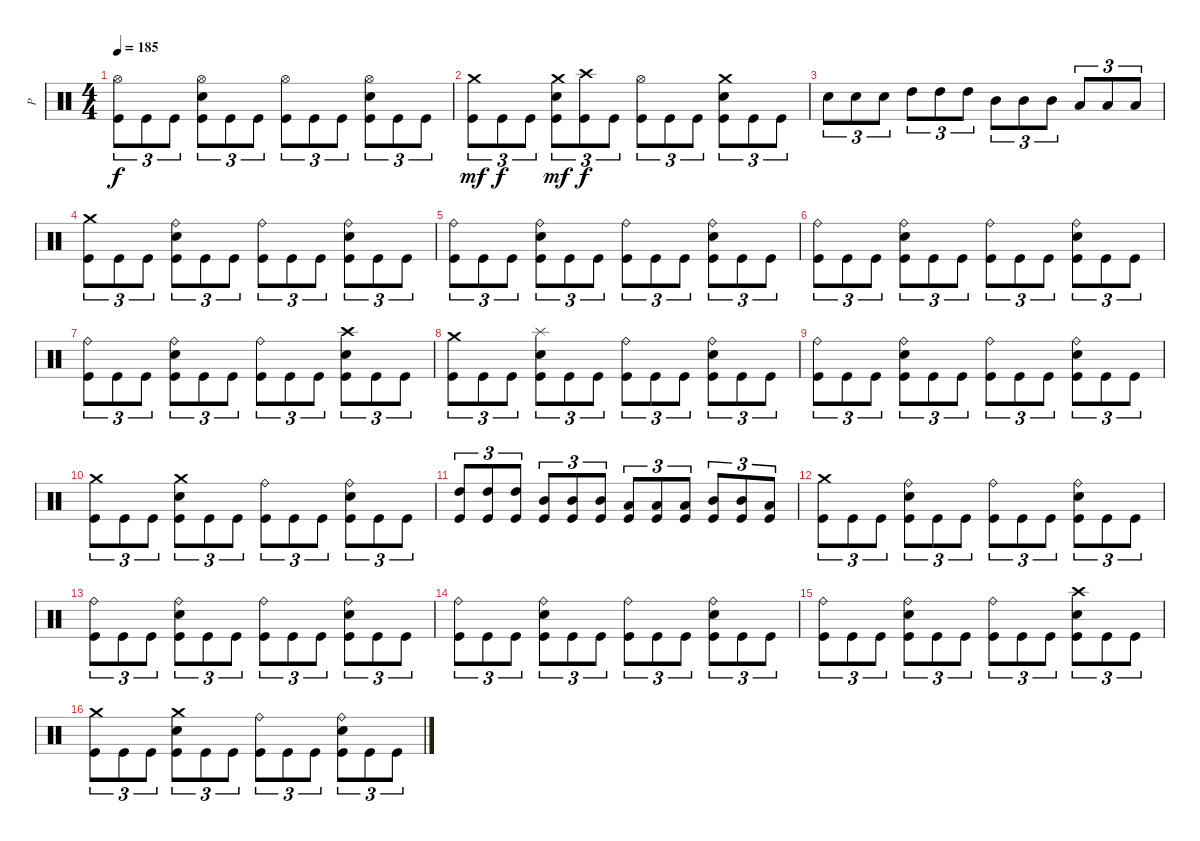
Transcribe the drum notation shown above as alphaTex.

\track ("P" "P") {instrument percussion}
\staff {score}
\articulation defaults
\ts (4 4)
\tempo 185
\clef neutral
\ks c
("Hi-Hat (open)" "Kick (hit)").8{tu (3 2) dy f} "Kick (hit)".8{tu (3 2)} "Kick (hit)".8{tu (3 2)} ("Hi-Hat (open)" "Electric Snare (hit)" "Kick (hit)").8{tu (3 2)} "Kick (hit)".8{tu (3 2)} "Kick (hit)".8{tu (3 2)} ("Hi-Hat (open)" "Kick (hit)").8{tu (3 2)} "Kick (hit)".8{tu (3 2)} "Kick (hit)".8{tu (3 2)} ("Hi-Hat (open)" "Electric Snare (hit)" "Kick (hit)").8{tu (3 2)} "Kick (hit)".8{tu (3 2)} "Kick (hit)".8{tu (3 2)} |
("Crash medium (hit)" "Kick (hit)").8{tu (3 2) dy mf} "Kick (hit)".8{tu (3 2) dy f} "Kick (hit)".8{tu (3 2)} ("Crash medium (hit)" "Electric Snare (hit)" "Kick (hit)").8{tu (3 2) dy mf} ("Crash high (hit)" "Kick (hit)").8{tu (3 2) dy f} "Kick (hit)".8{tu (3 2)} ("Hi-Hat (open)" "Kick (hit)").8{tu (3 2)} "Kick (hit)".8{tu (3 2)} "Kick (hit)".8{tu (3 2)} ("Crash medium (hit)" "Electric Snare (hit)" "Kick (hit)").8{tu (3 2)} "Kick (hit)".8{tu (3 2)} "Kick (hit)".8{tu (3 2)} |
"Electric Snare (hit)".8{tu (3 2)} "Electric Snare (hit)".8{tu (3 2)} "Electric Snare (hit)".8{tu (3 2)} "High Tom (hit)".8{tu (3 2)} "High Tom (hit)".8{tu (3 2)} "High Tom (hit)".8{tu (3 2)} "Mid Tom (hit)".8{tu (3 2)} "Mid Tom (hit)".8{tu (3 2)} "Mid Tom (hit)".8{tu (3 2)} "Low Tom (hit)".8{tu (3 2)} "Low Tom (hit)".8{tu (3 2)} "Low Tom (hit)".8{tu (3 2)} |
("Crash medium (hit)" "Kick (hit)").8{tu (3 2)} "Kick (hit)".8{tu (3 2)} "Kick (hit)".8{tu (3 2)} ("Ride (bell)" "Electric Snare (hit)" "Kick (hit)").8{tu (3 2)} "Kick (hit)".8{tu (3 2)} "Kick (hit)".8{tu (3 2)} ("Ride (bell)" "Kick (hit)").8{tu (3 2)} "Kick (hit)".8{tu (3 2)} "Kick (hit)".8{tu (3 2)} ("Ride (bell)" "Electric Snare (hit)" "Kick (hit)").8{tu (3 2)} "Kick (hit)".8{tu (3 2)} "Kick (hit)".8{tu (3 2)} |
("Ride (bell)" "Kick (hit)").8{tu (3 2)} "Kick (hit)".8{tu (3 2)} "Kick (hit)".8{tu (3 2)} ("Ride (bell)" "Electric Snare (hit)" "Kick (hit)").8{tu (3 2)} "Kick (hit)".8{tu (3 2)} "Kick (hit)".8{tu (3 2)} ("Ride (bell)" "Kick (hit)").8{tu (3 2)} "Kick (hit)".8{tu (3 2)} "Kick (hit)".8{tu (3 2)} ("Ride (bell)" "Electric Snare (hit)" "Kick (hit)").8{tu (3 2)} "Kick (hit)".8{tu (3 2)} "Kick (hit)".8{tu (3 2)} |
("Ride (bell)" "Kick (hit)").8{tu (3 2)} "Kick (hit)".8{tu (3 2)} "Kick (hit)".8{tu (3 2)} ("Ride (bell)" "Electric Snare (hit)" "Kick (hit)").8{tu (3 2)} "Kick (hit)".8{tu (3 2)} "Kick (hit)".8{tu (3 2)} ("Ride (bell)" "Kick (hit)").8{tu (3 2)} "Kick (hit)".8{tu (3 2)} "Kick (hit)".8{tu (3 2)} ("Ride (bell)" "Electric Snare (hit)" "Kick (hit)").8{tu (3 2)} "Kick (hit)".8{tu (3 2)} "Kick (hit)".8{tu (3 2)} |
("Ride (bell)" "Kick (hit)").8{tu (3 2)} "Kick (hit)".8{tu (3 2)} "Kick (hit)".8{tu (3 2)} ("Ride (bell)" "Electric Snare (hit)" "Kick (hit)").8{tu (3 2)} "Kick (hit)".8{tu (3 2)} "Kick (hit)".8{tu (3 2)} ("Ride (bell)" "Kick (hit)").8{tu (3 2)} "Kick (hit)".8{tu (3 2)} "Kick (hit)".8{tu (3 2)} ("Crash high (hit)" "Electric Snare (hit)" "Kick (hit)").8{tu (3 2)} "Kick (hit)".8{tu (3 2)} "Kick (hit)".8{tu (3 2)} |
("Crash medium (hit)" "Kick (hit)").8{tu (3 2)} "Kick (hit)".8{tu (3 2)} "Kick (hit)".8{tu (3 2)} ("Splash (hit)" "Electric Snare (hit)" "Kick (hit)").8{tu (3 2)} "Kick (hit)".8{tu (3 2)} "Kick (hit)".8{tu (3 2)} ("Ride (bell)" "Kick (hit)").8{tu (3 2)} "Kick (hit)".8{tu (3 2)} "Kick (hit)".8{tu (3 2)} ("Ride (bell)" "Electric Snare (hit)" "Kick (hit)").8{tu (3 2)} "Kick (hit)".8{tu (3 2)} "Kick (hit)".8{tu (3 2)} |
("Ride (bell)" "Kick (hit)").8{tu (3 2)} "Kick (hit)".8{tu (3 2)} "Kick (hit)".8{tu (3 2)} ("Ride (bell)" "Electric Snare (hit)" "Kick (hit)").8{tu (3 2)} "Kick (hit)".8{tu (3 2)} "Kick (hit)".8{tu (3 2)} ("Ride (bell)" "Kick (hit)").8{tu (3 2)} "Kick (hit)".8{tu (3 2)} "Kick (hit)".8{tu (3 2)} ("Ride (bell)" "Electric Snare (hit)" "Kick (hit)").8{tu (3 2)} "Kick (hit)".8{tu (3 2)} "Kick (hit)".8{tu (3 2)} |
("Crash medium (hit)" "Kick (hit)").8{tu (3 2)} "Kick (hit)".8{tu (3 2)} "Kick (hit)".8{tu (3 2)} ("Crash medium (hit)" "Electric Snare (hit)" "Kick (hit)").8{tu (3 2)} "Kick (hit)".8{tu (3 2)} "Kick (hit)".8{tu (3 2)} ("Ride (bell)" "Kick (hit)").8{tu (3 2)} "Kick (hit)".8{tu (3 2)} "Kick (hit)".8{tu (3 2)} ("Ride (bell)" "Electric Snare (hit)" "Kick (hit)").8{tu (3 2)} "Kick (hit)".8{tu (3 2)} "Kick (hit)".8{tu (3 2)} |
("High Tom (hit)" "Kick (hit)").8{tu (3 2)} ("High Tom (hit)" "Kick (hit)").8{tu (3 2)} ("High Tom (hit)" "Kick (hit)").8{tu (3 2)} ("Mid Tom (hit)" "Kick (hit)").8{tu (3 2)} ("Mid Tom (hit)" "Kick (hit)").8{tu (3 2)} ("Mid Tom (hit)" "Kick (hit)").8{tu (3 2)} ("Low Tom (hit)" "Kick (hit)").8{tu (3 2)} ("Low Tom (hit)" "Kick (hit)").8{tu (3 2)} ("Low Tom (hit)" "Kick (hit)").8{tu (3 2)} ("Mid Tom (hit)" "Kick (hit)").8{tu (3 2)} ("Mid Tom (hit)" "Kick (hit)").8{tu (3 2)} ("Low Tom (hit)" "Kick (hit)").8{tu (3 2)} |
("Crash medium (hit)" "Kick (hit)").8{tu (3 2)} "Kick (hit)".8{tu (3 2)} "Kick (hit)".8{tu (3 2)} ("Ride (bell)" "Electric Snare (hit)" "Kick (hit)").8{tu (3 2)} "Kick (hit)".8{tu (3 2)} "Kick (hit)".8{tu (3 2)} ("Ride (bell)" "Kick (hit)").8{tu (3 2)} "Kick (hit)".8{tu (3 2)} "Kick (hit)".8{tu (3 2)} ("Ride (bell)" "Electric Snare (hit)" "Kick (hit)").8{tu (3 2)} "Kick (hit)".8{tu (3 2)} "Kick (hit)".8{tu (3 2)} |
("Ride (bell)" "Kick (hit)").8{tu (3 2)} "Kick (hit)".8{tu (3 2)} "Kick (hit)".8{tu (3 2)} ("Ride (bell)" "Electric Snare (hit)" "Kick (hit)").8{tu (3 2)} "Kick (hit)".8{tu (3 2)} "Kick (hit)".8{tu (3 2)} ("Ride (bell)" "Kick (hit)").8{tu (3 2)} "Kick (hit)".8{tu (3 2)} "Kick (hit)".8{tu (3 2)} ("Ride (bell)" "Electric Snare (hit)" "Kick (hit)").8{tu (3 2)} "Kick (hit)".8{tu (3 2)} "Kick (hit)".8{tu (3 2)} |
("Ride (bell)" "Kick (hit)").8{tu (3 2)} "Kick (hit)".8{tu (3 2)} "Kick (hit)".8{tu (3 2)} ("Ride (bell)" "Electric Snare (hit)" "Kick (hit)").8{tu (3 2)} "Kick (hit)".8{tu (3 2)} "Kick (hit)".8{tu (3 2)} ("Ride (bell)" "Kick (hit)").8{tu (3 2)} "Kick (hit)".8{tu (3 2)} "Kick (hit)".8{tu (3 2)} ("Ride (bell)" "Electric Snare (hit)" "Kick (hit)").8{tu (3 2)} "Kick (hit)".8{tu (3 2)} "Kick (hit)".8{tu (3 2)} |
("Ride (bell)" "Kick (hit)").8{tu (3 2)} "Kick (hit)".8{tu (3 2)} "Kick (hit)".8{tu (3 2)} ("Ride (bell)" "Electric Snare (hit)" "Kick (hit)").8{tu (3 2)} "Kick (hit)".8{tu (3 2)} "Kick (hit)".8{tu (3 2)} ("Ride (bell)" "Kick (hit)").8{tu (3 2)} "Kick (hit)".8{tu (3 2)} "Kick (hit)".8{tu (3 2)} ("Crash high (hit)" "Electric Snare (hit)" "Kick (hit)").8{tu (3 2)} "Kick (hit)".8{tu (3 2)} "Kick (hit)".8{tu (3 2)} |
("Crash medium (hit)" "Kick (hit)").8{tu (3 2)} "Kick (hit)".8{tu (3 2)} "Kick (hit)".8{tu (3 2)} ("Crash medium (hit)" "Electric Snare (hit)" "Kick (hit)").8{tu (3 2)} "Kick (hit)".8{tu (3 2)} "Kick (hit)".8{tu (3 2)} ("Ride (bell)" "Kick (hit)").8{tu (3 2)} "Kick (hit)".8{tu (3 2)} "Kick (hit)".8{tu (3 2)} ("Ride (bell)" "Electric Snare (hit)" "Kick (hit)").8{tu (3 2)} "Kick (hit)".8{tu (3 2)} "Kick (hit)".8{tu (3 2)}
